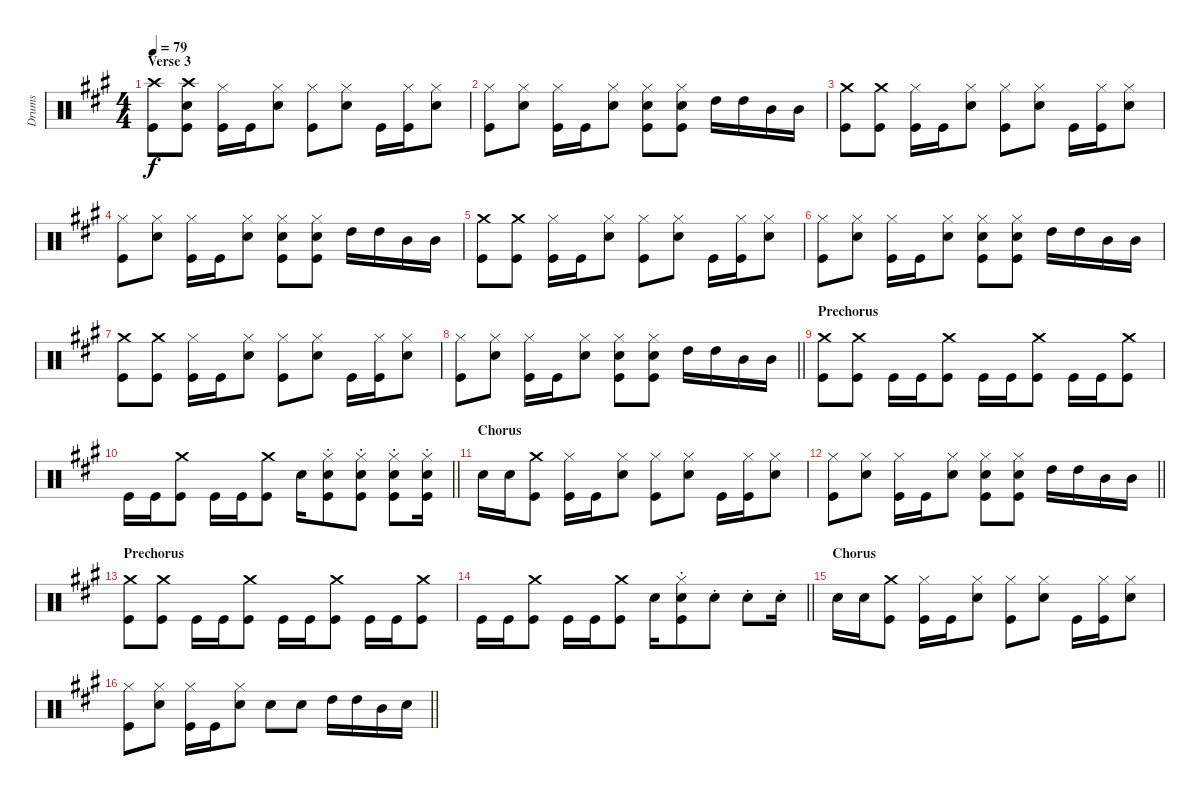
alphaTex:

\track ("Drums" "Drums") {instrument percussion}
\staff {score}
\articulation defaults
\ts (4 4)
\section ("" "Verse 3")
\tempo 79
\clef neutral
\ks a
("Crash high (hit)" "Kick (hit)").8{dy f} ("Crash high (hit)" "Snare (hit) 2" "Kick (hit)").8 ("Hi-Hat (closed)" "Kick (hit)").16 "Kick (hit)".16 ("Hi-Hat (closed)" "Snare (hit) 2").8 ("Hi-Hat (closed)" "Kick (hit)").8 ("Hi-Hat (closed)" "Snare (hit) 2").8 "Kick (hit)".16 ("Hi-Hat (closed)" "Kick (hit)").16 ("Hi-Hat (closed)" "Snare (hit) 2").8 |
("Hi-Hat (closed)" "Kick (hit)").8 ("Hi-Hat (closed)" "Snare (hit) 2").8 ("Hi-Hat (closed)" "Kick (hit)").16 "Kick (hit)".16 ("Hi-Hat (closed)" "Snare (hit) 2").8 ("Hi-Hat (closed)" "Snare (hit) 2" "Kick (hit)").8 ("Hi-Hat (closed)" "Snare (hit) 2" "Kick (hit)").8 "High Tom (hit)".16 "High Tom (hit)".16 "Mid Tom (hit)".16 "Mid Tom (hit)".16 |
("Crash medium (hit)" "Kick (hit)").8 ("Crash medium (hit)" "Kick (hit)").8 ("Hi-Hat (closed)" "Kick (hit)").16 "Kick (hit)".16 ("Hi-Hat (closed)" "Snare (hit) 2").8 ("Hi-Hat (closed)" "Kick (hit)").8 ("Hi-Hat (closed)" "Snare (hit) 2").8 "Kick (hit)".16 ("Hi-Hat (closed)" "Kick (hit)").16 ("Hi-Hat (closed)" "Snare (hit) 2").8 |
("Hi-Hat (closed)" "Kick (hit)").8 ("Hi-Hat (closed)" "Snare (hit) 2").8 ("Hi-Hat (closed)" "Kick (hit)").16 "Kick (hit)".16 ("Hi-Hat (closed)" "Snare (hit) 2").8 ("Hi-Hat (closed)" "Snare (hit) 2" "Kick (hit)").8 ("Hi-Hat (closed)" "Snare (hit) 2" "Kick (hit)").8 "High Tom (hit)".16 "High Tom (hit)".16 "Mid Tom (hit)".16 "Mid Tom (hit)".16 |
("Crash medium (hit)" "Kick (hit)").8 ("Crash medium (hit)" "Kick (hit)").8 ("Hi-Hat (closed)" "Kick (hit)").16 "Kick (hit)".16 ("Hi-Hat (closed)" "Snare (hit) 2").8 ("Hi-Hat (closed)" "Kick (hit)").8 ("Hi-Hat (closed)" "Snare (hit) 2").8 "Kick (hit)".16 ("Hi-Hat (closed)" "Kick (hit)").16 ("Hi-Hat (closed)" "Snare (hit) 2").8 |
("Hi-Hat (closed)" "Kick (hit)").8 ("Hi-Hat (closed)" "Snare (hit) 2").8 ("Hi-Hat (closed)" "Kick (hit)").16 "Kick (hit)".16 ("Hi-Hat (closed)" "Snare (hit) 2").8 ("Hi-Hat (closed)" "Snare (hit) 2" "Kick (hit)").8 ("Hi-Hat (closed)" "Snare (hit) 2" "Kick (hit)").8 "High Tom (hit)".16 "High Tom (hit)".16 "Mid Tom (hit)".16 "Mid Tom (hit)".16 |
("Crash medium (hit)" "Kick (hit)").8 ("Crash medium (hit)" "Kick (hit)").8 ("Hi-Hat (closed)" "Kick (hit)").16 "Kick (hit)".16 ("Hi-Hat (closed)" "Snare (hit) 2").8 ("Hi-Hat (closed)" "Kick (hit)").8 ("Hi-Hat (closed)" "Snare (hit) 2").8 "Kick (hit)".16 ("Hi-Hat (closed)" "Kick (hit)").16 ("Hi-Hat (closed)" "Snare (hit) 2").8 |
\barLineRight lightlight
("Hi-Hat (closed)" "Kick (hit)").8 ("Hi-Hat (closed)" "Snare (hit) 2").8 ("Hi-Hat (closed)" "Kick (hit)").16 "Kick (hit)".16 ("Hi-Hat (closed)" "Snare (hit) 2").8 ("Hi-Hat (closed)" "Snare (hit) 2" "Kick (hit)").8 ("Hi-Hat (closed)" "Snare (hit) 2" "Kick (hit)").8 "High Tom (hit)".16 "High Tom (hit)".16 "Mid Tom (hit)".16 "Mid Tom (hit)".16 |
\section ("" "Prechorus")
("Crash medium (hit)" "Kick (hit)").8 ("Crash medium (hit)" "Kick (hit)").8 "Kick (hit)".16 "Kick (hit)".16 ("Crash medium (hit)" "Kick (hit)").8 "Kick (hit)".16 "Kick (hit)".16 ("Crash medium (hit)" "Kick (hit)").8 "Kick (hit)".16 "Kick (hit)".16 ("Crash medium (hit)" "Kick (hit)").8 |
\barLineRight lightlight "Kick (hit)".16 "Kick (hit)".16
("Crash medium (hit)" "Kick (hit)").8 "Kick (hit)".16 "Kick (hit)".16 ("Crash medium (hit)" "Kick (hit)").8 "Snare (hit) 2".16 ("Hi-Hat (closed)"{st} "Snare (hit) 2"{st} "Kick (hit)"{st}).8 ("Hi-Hat (closed)"{st} "Snare (hit) 2"{st} "Kick (hit)"{st}).8 ("Hi-Hat (closed)"{st} "Snare (hit) 2"{st} "Kick (hit)"{st}).8 ("Hi-Hat (closed)"{st} "Snare (hit) 2"{st} "Kick (hit)"{st}).16 |
\section ("" "Chorus")
"Snare (hit) 2".16 "Snare (hit) 2".16 ("Crash medium (hit)" "Kick (hit)").8 ("Hi-Hat (closed)" "Kick (hit)").16 "Kick (hit)".16 ("Hi-Hat (closed)" "Snare (hit) 2").8 ("Hi-Hat (closed)" "Kick (hit)").8 ("Hi-Hat (closed)" "Snare (hit) 2").8 "Kick (hit)".16 ("Hi-Hat (closed)" "Kick (hit)").16 ("Hi-Hat (closed)" "Snare (hit) 2").8 |
\barLineRight lightlight
("Hi-Hat (closed)" "Kick (hit)").8 ("Hi-Hat (closed)" "Snare (hit) 2").8 ("Hi-Hat (closed)" "Kick (hit)").16 "Kick (hit)".16 ("Hi-Hat (closed)" "Snare (hit) 2").8 ("Hi-Hat (closed)" "Snare (hit) 2" "Kick (hit)").8 ("Hi-Hat (closed)" "Snare (hit) 2" "Kick (hit)").8 "High Tom (hit)".16 "High Tom (hit)".16 "Mid Tom (hit)".16 "Mid Tom (hit)".16 |
\section ("" "Prechorus")
("Crash medium (hit)" "Kick (hit)").8 ("Crash medium (hit)" "Kick (hit)").8 "Kick (hit)".16 "Kick (hit)".16 ("Crash medium (hit)" "Kick (hit)").8 "Kick (hit)".16 "Kick (hit)".16 ("Crash medium (hit)" "Kick (hit)").8 "Kick (hit)".16 "Kick (hit)".16 ("Crash medium (hit)" "Kick (hit)").8 |
\barLineRight lightlight "Kick (hit)".16 "Kick (hit)".16
("Crash medium (hit)" "Kick (hit)").8 "Kick (hit)".16 "Kick (hit)".16 ("Crash medium (hit)" "Kick (hit)").8 "Snare (hit) 2".16 ("Hi-Hat (closed)"{st} "Snare (hit) 2"{st} "Kick (hit)"{st}).8 "Snare (hit) 2"{st}.8 "Snare (hit) 2"{st}.8 "Snare (hit) 2"{st}.16 |
\section ("" "Chorus")
"Snare (hit) 2".16 "Snare (hit) 2".16 ("Crash medium (hit)" "Kick (hit)").8 ("Hi-Hat (closed)" "Kick (hit)").16 "Kick (hit)".16 ("Hi-Hat (closed)" "Snare (hit) 2").8 ("Hi-Hat (closed)" "Kick (hit)").8 ("Hi-Hat (closed)" "Snare (hit) 2").8 "Kick (hit)".16 ("Hi-Hat (closed)" "Kick (hit)").16 ("Hi-Hat (closed)" "Snare (hit) 2").8 |
\barLineRight lightlight
("Hi-Hat (closed)" "Kick (hit)").8 ("Hi-Hat (closed)" "Snare (hit) 2").8 ("Hi-Hat (closed)" "Kick (hit)").16 "Kick (hit)".16 ("Hi-Hat (closed)" "Snare (hit) 2").8 "Snare (hit) 2".8 "Snare (hit) 2".8 "High Tom (hit)".16 "High Tom (hit)".16 "Mid Tom (hit)".16 "Snare (hit) 2".16
